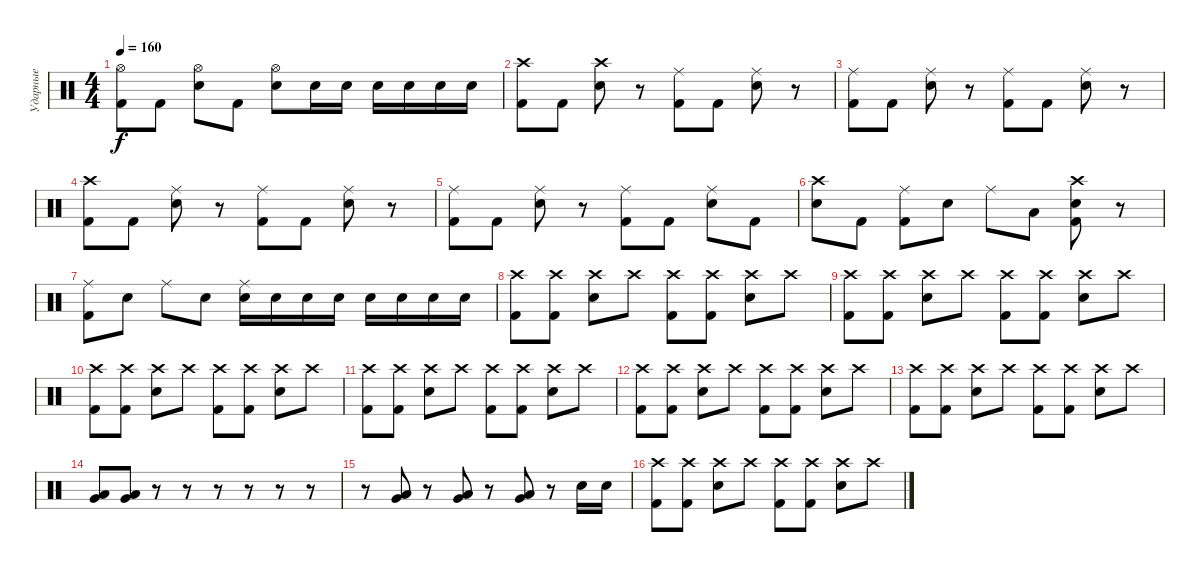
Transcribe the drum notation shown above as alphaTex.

\track ("Ударные" "Ударные") {instrument percussion}
\staff {score}
\articulation defaults
\ts (4 4)
\tempo 160
\clef neutral
\ks c
("Hi-Hat (open)" "Kick (hit) 2").8{dy f} "Kick (hit) 2".8 ("Hi-Hat (open)" "Snare (hit) 2").8 "Kick (hit) 2".8 ("Hi-Hat (open)" "Snare (hit) 2").8 "Snare (hit) 2".16 "Snare (hit) 2".16 "Snare (hit) 2".16 "Snare (hit) 2".16 "Snare (hit) 2".16 "Snare (hit) 2".16 |
("Crash high (hit)" "Kick (hit) 2").8 "Kick (hit) 2".8 ("Crash high (hit)" "Snare (hit) 2").8 r.8 ("Ride (middle)" "Kick (hit) 2").8 "Kick (hit) 2".8 ("Ride (middle)" "Snare (hit) 2").8 r.8 |
("Ride (middle)" "Kick (hit) 2").8 "Kick (hit) 2".8 ("Ride (middle)" "Snare (hit) 2").8 r.8 ("Ride (middle)" "Kick (hit) 2").8 "Kick (hit) 2".8 ("Ride (middle)" "Snare (hit) 2").8 r.8 |
("Crash high (hit)" "Kick (hit) 2").8 "Kick (hit) 2".8 ("Ride (middle)" "Snare (hit) 2").8 r.8 ("Ride (middle)" "Kick (hit) 2").8 "Kick (hit) 2".8 ("Ride (middle)" "Snare (hit) 2").8 r.8 |
("Ride (middle)" "Kick (hit) 2").8 "Kick (hit) 2".8 ("Ride (middle)" "Snare (hit) 2").8 r.8 ("Ride (middle)" "Kick (hit) 2").8 "Kick (hit) 2".8 ("Ride (middle)" "Snare (hit) 2").8 "Kick (hit) 2".8 |
("Crash high (hit)" "Snare (hit) 2").8 "Kick (hit) 2".8 ("Ride (middle)" "Kick (hit) 2").8 "Snare (hit) 2".8 "Ride (middle)".8 "Low Tom (hit)".8 ("Crash high (hit)" "Snare (hit) 2" "Kick (hit) 2").8 r.8 |
("Ride (middle)" "Kick (hit) 2").8 "Snare (hit) 2".8 "Ride (middle)".8 "Snare (hit) 2".8 ("Ride (middle)" "Snare (hit) 2").16 "Snare (hit) 2".16 "Snare (hit) 2".16 "Snare (hit) 2".16 "Snare (hit) 2".16 "Snare (hit) 2".16 "Snare (hit) 2".16 "Snare (hit) 2".16 |
("Crash high (hit)" "Kick (hit) 2").8 ("Crash high (hit)" "Kick (hit) 2").8 ("Crash high (hit)" "Snare (hit) 2").8 "Crash high (hit)".8 ("Crash high (hit)" "Kick (hit) 2").8 ("Crash high (hit)" "Kick (hit) 2").8 ("Crash high (hit)" "Snare (hit) 2").8 "Crash high (hit)".8 |
("Crash high (hit)" "Kick (hit) 2").8 ("Crash high (hit)" "Kick (hit) 2").8 ("Crash high (hit)" "Snare (hit) 2").8 "Crash high (hit)".8 ("Crash high (hit)" "Kick (hit) 2").8 ("Crash high (hit)" "Kick (hit) 2").8 ("Crash high (hit)" "Snare (hit) 2").8 "Crash high (hit)".8 |
("Crash high (hit)" "Kick (hit) 2").8 ("Crash high (hit)" "Kick (hit) 2").8 ("Crash high (hit)" "Snare (hit) 2").8 "Crash high (hit)".8 ("Crash high (hit)" "Kick (hit) 2").8 ("Crash high (hit)" "Kick (hit) 2").8 ("Crash high (hit)" "Snare (hit) 2").8 "Crash high (hit)".8 |
("Crash high (hit)" "Kick (hit) 2").8 ("Crash high (hit)" "Kick (hit) 2").8 ("Crash high (hit)" "Snare (hit) 2").8 "Crash high (hit)".8 ("Crash high (hit)" "Kick (hit) 2").8 ("Crash high (hit)" "Kick (hit) 2").8 ("Crash high (hit)" "Snare (hit) 2").8 "Crash high (hit)".8 |
("Crash high (hit)" "Kick (hit) 2").8 ("Crash high (hit)" "Kick (hit) 2").8 ("Crash high (hit)" "Snare (hit) 2").8 "Crash high (hit)".8 ("Crash high (hit)" "Kick (hit) 2").8 ("Crash high (hit)" "Kick (hit) 2").8 ("Crash high (hit)" "Snare (hit) 2").8 "Crash high (hit)".8 |
("Crash high (hit)" "Kick (hit) 2").8 ("Crash high (hit)" "Kick (hit) 2").8 ("Crash high (hit)" "Snare (hit) 2").8 "Crash high (hit)".8 ("Crash high (hit)" "Kick (hit) 2").8 ("Crash high (hit)" "Kick (hit) 2").8 ("Crash high (hit)" "Snare (hit) 2").8 "Crash high (hit)".8 |
("Low Tom (hit)" "Very Low Tom (hit)").8 ("Low Tom (hit)" "Very Low Tom (hit)").8 r.8 r.8 r.8 r.8 r.8 r.8 |
r.8 ("Very Low Tom (hit)" "Low Tom (hit)").8 r.8 ("Very Low Tom (hit)" "Low Tom (hit)").8 r.8 ("Very Low Tom (hit)" "Low Tom (hit)").8 r.8 "Snare (hit) 2".16 "Snare (hit) 2".16 |
("Crash high (hit)" "Kick (hit) 2").8 ("Crash high (hit)" "Kick (hit) 2").8 ("Crash high (hit)" "Snare (hit) 2").8 "Crash high (hit)".8 ("Crash high (hit)" "Kick (hit) 2").8 ("Crash high (hit)" "Kick (hit) 2").8 ("Crash high (hit)" "Snare (hit) 2").8 "Crash high (hit)".8
